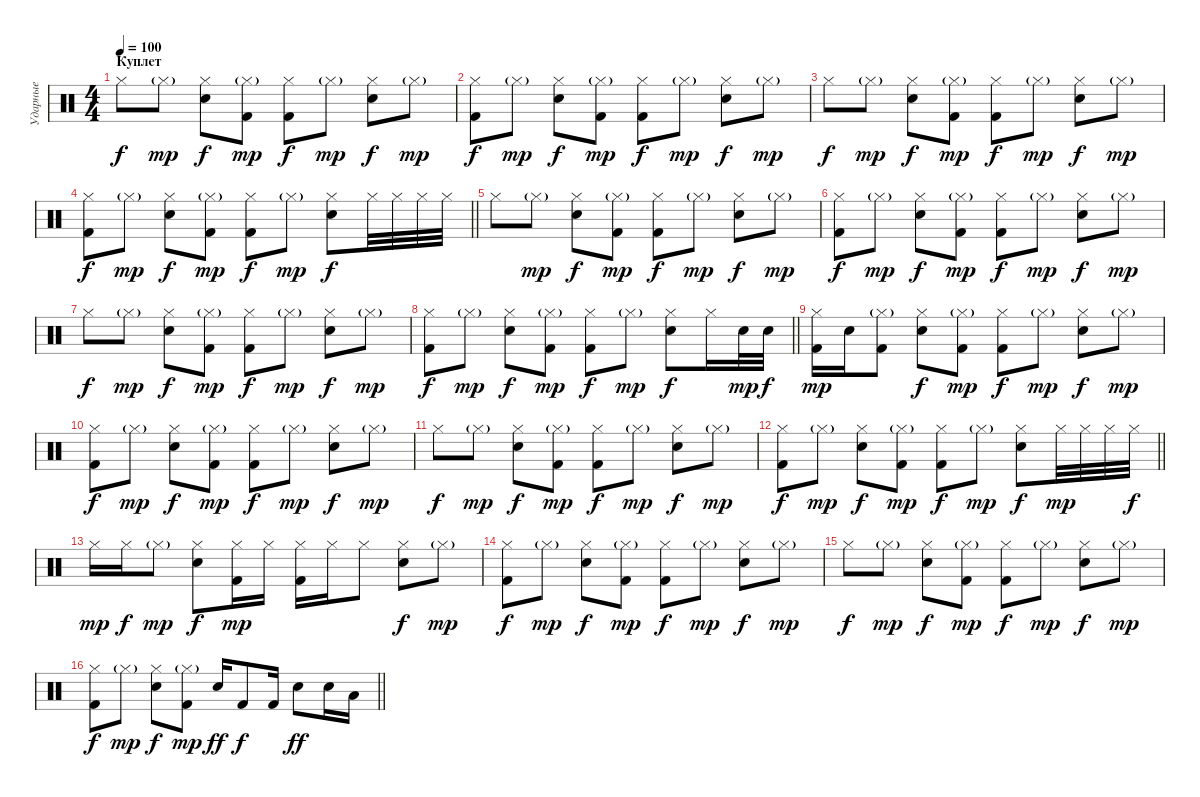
\track ("Ударные" "Ударные") {instrument percussion}
\staff {score}
\articulation defaults
\ts (4 4)
\section ("" "Куплет")
\tempo 100
\clef neutral
\ks c "Hi-Hat (closed)".8{dy f} "Hi-Hat (closed)"{g}.8{dy mp}
("Hi-Hat (closed)" "Electric Snare (hit)").8{dy f} ("Hi-Hat (closed)"{g} "Kick (hit) 2").8{dy mp} ("Hi-Hat (closed)" "Kick (hit) 2").8{dy f} "Hi-Hat (closed)"{g}.8{dy mp} ("Hi-Hat (closed)" "Electric Snare (hit)").8{dy f} "Hi-Hat (closed)"{g}.8{dy mp} |
("Hi-Hat (closed)" "Kick (hit) 2").8{dy f} "Hi-Hat (closed)"{g}.8{dy mp} ("Hi-Hat (closed)" "Electric Snare (hit)").8{dy f} ("Hi-Hat (closed)"{g} "Kick (hit) 2").8{dy mp} ("Hi-Hat (closed)" "Kick (hit) 2").8{dy f} "Hi-Hat (closed)"{g}.8{dy mp} ("Hi-Hat (closed)" "Electric Snare (hit)").8{dy f} "Hi-Hat (closed)"{g}.8{dy mp} |
"Hi-Hat (closed)".8{dy f} "Hi-Hat (closed)"{g}.8{dy mp} ("Hi-Hat (closed)" "Electric Snare (hit)").8{dy f} ("Hi-Hat (closed)"{g} "Kick (hit) 2").8{dy mp} ("Hi-Hat (closed)" "Kick (hit) 2").8{dy f} "Hi-Hat (closed)"{g}.8{dy mp} ("Hi-Hat (closed)" "Electric Snare (hit)").8{dy f} "Hi-Hat (closed)"{g}.8{dy mp} |
\barLineRight lightlight
("Hi-Hat (closed)" "Kick (hit) 2").8{dy f} "Hi-Hat (closed)"{g}.8{dy mp} ("Hi-Hat (closed)" "Electric Snare (hit)").8{dy f} ("Hi-Hat (closed)"{g} "Kick (hit) 2").8{dy mp} ("Hi-Hat (closed)" "Kick (hit) 2").8{dy f} "Hi-Hat (closed)"{g}.8{dy mp} ("Hi-Hat (closed)" "Electric Snare (hit)").8{dy f} "Hi-Hat (closed)".32 "Hi-Hat (closed)".32 "Hi-Hat (closed)".32 "Hi-Hat (closed)".32 |
"Hi-Hat (closed)".8 "Hi-Hat (closed)"{g}.8{dy mp} ("Hi-Hat (closed)" "Electric Snare (hit)").8{dy f} ("Hi-Hat (closed)"{g} "Kick (hit) 2").8{dy mp} ("Hi-Hat (closed)" "Kick (hit) 2").8{dy f} "Hi-Hat (closed)"{g}.8{dy mp} ("Hi-Hat (closed)" "Electric Snare (hit)").8{dy f} "Hi-Hat (closed)"{g}.8{dy mp} |
("Hi-Hat (closed)" "Kick (hit) 2").8{dy f} "Hi-Hat (closed)"{g}.8{dy mp} ("Hi-Hat (closed)" "Electric Snare (hit)").8{dy f} ("Hi-Hat (closed)"{g} "Kick (hit) 2").8{dy mp} ("Hi-Hat (closed)" "Kick (hit) 2").8{dy f} "Hi-Hat (closed)"{g}.8{dy mp} ("Hi-Hat (closed)" "Electric Snare (hit)").8{dy f} "Hi-Hat (closed)"{g}.8{dy mp} |
"Hi-Hat (closed)".8{dy f} "Hi-Hat (closed)"{g}.8{dy mp} ("Hi-Hat (closed)" "Electric Snare (hit)").8{dy f} ("Hi-Hat (closed)"{g} "Kick (hit) 2").8{dy mp} ("Hi-Hat (closed)" "Kick (hit) 2").8{dy f} "Hi-Hat (closed)"{g}.8{dy mp} ("Hi-Hat (closed)" "Electric Snare (hit)").8{dy f} "Hi-Hat (closed)"{g}.8{dy mp} |
\barLineRight lightlight
("Hi-Hat (closed)" "Kick (hit) 2").8{dy f} "Hi-Hat (closed)"{g}.8{dy mp} ("Hi-Hat (closed)" "Electric Snare (hit)").8{dy f} ("Hi-Hat (closed)"{g} "Kick (hit) 2").8{dy mp} ("Hi-Hat (closed)" "Kick (hit) 2").8{dy f} "Hi-Hat (closed)"{g}.8{dy mp} ("Hi-Hat (closed)" "Electric Snare (hit)").8{dy f} "Hi-Hat (closed)".16 "Electric Snare (hit)".32{dy mp} "Electric Snare (hit)".32{dy f} |
("Hi-Hat (closed)" "Kick (hit) 2").16{dy mp} "Electric Snare (hit)".16 ("Hi-Hat (closed)"{g} "Kick (hit) 2").8 ("Hi-Hat (closed)" "Electric Snare (hit)").8{dy f} ("Hi-Hat (closed)"{g} "Kick (hit) 2").8{dy mp} ("Hi-Hat (closed)" "Kick (hit) 2").8{dy f} "Hi-Hat (closed)"{g}.8{dy mp} ("Hi-Hat (closed)" "Electric Snare (hit)").8{dy f} "Hi-Hat (closed)"{g}.8{dy mp} |
("Hi-Hat (closed)" "Kick (hit) 2").8{dy f} "Hi-Hat (closed)"{g}.8{dy mp} ("Hi-Hat (closed)" "Electric Snare (hit)").8{dy f} ("Hi-Hat (closed)"{g} "Kick (hit) 2").8{dy mp} ("Hi-Hat (closed)" "Kick (hit) 2").8{dy f} "Hi-Hat (closed)"{g}.8{dy mp} ("Hi-Hat (closed)" "Electric Snare (hit)").8{dy f} "Hi-Hat (closed)"{g}.8{dy mp} |
"Hi-Hat (closed)".8{dy f} "Hi-Hat (closed)"{g}.8{dy mp} ("Hi-Hat (closed)" "Electric Snare (hit)").8{dy f} ("Hi-Hat (closed)"{g} "Kick (hit) 2").8{dy mp} ("Hi-Hat (closed)" "Kick (hit) 2").8{dy f} "Hi-Hat (closed)"{g}.8{dy mp} ("Hi-Hat (closed)" "Electric Snare (hit)").8{dy f} "Hi-Hat (closed)"{g}.8{dy mp} |
\barLineRight lightlight
("Hi-Hat (closed)" "Kick (hit) 2").8{dy f} "Hi-Hat (closed)"{g}.8{dy mp} ("Hi-Hat (closed)" "Electric Snare (hit)").8{dy f} ("Hi-Hat (closed)"{g} "Kick (hit) 2").8{dy mp} ("Hi-Hat (closed)" "Kick (hit) 2").8{dy f} "Hi-Hat (closed)"{g}.8{dy mp} ("Hi-Hat (closed)" "Electric Snare (hit)").8{dy f} "Hi-Hat (closed)".32{dy mp} "Hi-Hat (closed)".32 "Hi-Hat (closed)".32 "Hi-Hat (closed)".32{dy f} |
"Hi-Hat (closed)".16{dy mp} "Hi-Hat (closed)".16{dy f} "Hi-Hat (closed)"{g}.8{dy mp} ("Hi-Hat (closed)" "Electric Snare (hit)").8{dy f} ("Hi-Hat (closed)" "Kick (hit) 2").16{dy mp} "Hi-Hat (closed)".16 ("Hi-Hat (closed)" "Kick (hit) 2").16 "Hi-Hat (closed)".16 "Hi-Hat (closed)".8 ("Hi-Hat (closed)" "Electric Snare (hit)").8{dy f} "Hi-Hat (closed)"{g}.8{dy mp} |
("Hi-Hat (closed)" "Kick (hit) 2").8{dy f} "Hi-Hat (closed)"{g}.8{dy mp} ("Hi-Hat (closed)" "Electric Snare (hit)").8{dy f} ("Hi-Hat (closed)"{g} "Kick (hit) 2").8{dy mp} ("Hi-Hat (closed)" "Kick (hit) 2").8{dy f} "Hi-Hat (closed)"{g}.8{dy mp} ("Hi-Hat (closed)" "Electric Snare (hit)").8{dy f} "Hi-Hat (closed)"{g}.8{dy mp} |
"Hi-Hat (closed)".8{dy f} "Hi-Hat (closed)"{g}.8{dy mp} ("Hi-Hat (closed)" "Electric Snare (hit)").8{dy f} ("Hi-Hat (closed)"{g} "Kick (hit) 2").8{dy mp} ("Hi-Hat (closed)" "Kick (hit) 2").8{dy f} "Hi-Hat (closed)"{g}.8{dy mp} ("Hi-Hat (closed)" "Electric Snare (hit)").8{dy f} "Hi-Hat (closed)"{g}.8{dy mp} |
\barLineRight lightlight
("Hi-Hat (closed)" "Kick (hit) 2").8{dy f} "Hi-Hat (closed)"{g}.8{dy mp} ("Hi-Hat (closed)" "Electric Snare (hit)").8{dy f} ("Hi-Hat (closed)"{g} "Kick (hit) 2").8{dy mp} "Electric Snare (hit)".16{dy ff} "Kick (hit) 2".8{dy f} "Kick (hit) 2".16 "Electric Snare (hit)".8{dy ff} "Electric Snare (hit)".16 "Low Tom (hit)".16
